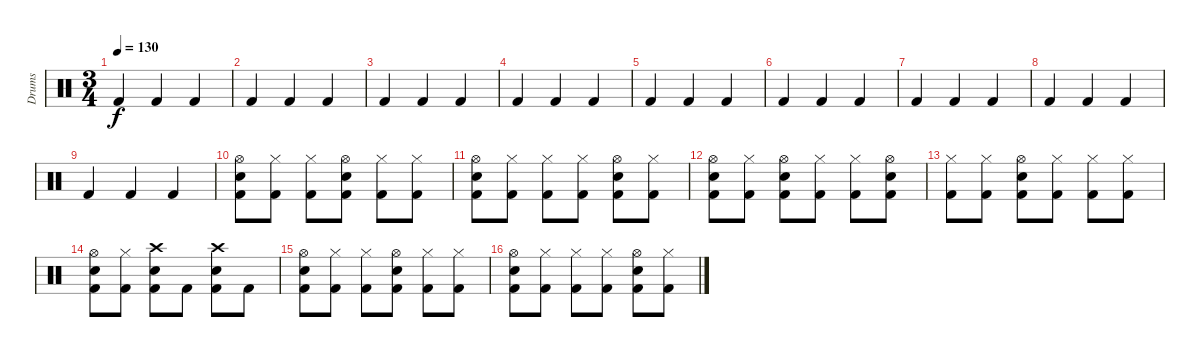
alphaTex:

\track ("Drums" "Drums") {instrument percussion}
\staff {score}
\articulation defaults
\ts (3 4)
\tempo 130
\clef neutral
\ks c "Kick (hit) 2".4{dy f} "Kick (hit) 2".4 "Kick (hit) 2".4
|
"Kick (hit) 2".4 "Kick (hit) 2".4 "Kick (hit) 2".4 |
"Kick (hit) 2".4 "Kick (hit) 2".4 "Kick (hit) 2".4 |
"Kick (hit) 2".4 "Kick (hit) 2".4 "Kick (hit) 2".4 |
"Kick (hit) 2".4 "Kick (hit) 2".4 "Kick (hit) 2".4 |
"Kick (hit) 2".4 "Kick (hit) 2".4 "Kick (hit) 2".4 |
"Kick (hit) 2".4 "Kick (hit) 2".4 "Kick (hit) 2".4 |
"Kick (hit) 2".4 "Kick (hit) 2".4 "Kick (hit) 2".4 |
"Kick (hit) 2".4 "Kick (hit) 2".4 "Kick (hit) 2".4 |
("Hi-Hat (open)" "Snare (hit) 2" "Kick (hit) 2").8 ("Hi-Hat (closed)" "Kick (hit) 2").8 ("Hi-Hat (closed)" "Kick (hit) 2").8 ("Hi-Hat (open)" "Snare (hit) 2" "Kick (hit) 2").8 ("Hi-Hat (closed)" "Kick (hit) 2").8 ("Hi-Hat (closed)" "Kick (hit) 2").8 |
("Hi-Hat (open)" "Snare (hit) 2" "Kick (hit) 2").8 ("Hi-Hat (closed)" "Kick (hit) 2").8 ("Hi-Hat (closed)" "Kick (hit) 2").8 ("Hi-Hat (closed)" "Kick (hit) 2").8 ("Hi-Hat (open)" "Snare (hit) 2" "Kick (hit) 2").8 ("Hi-Hat (closed)" "Kick (hit) 2").8 |
("Hi-Hat (open)" "Snare (hit) 2" "Kick (hit) 2").8 ("Hi-Hat (closed)" "Kick (hit) 2").8 ("Hi-Hat (open)" "Snare (hit) 2" "Kick (hit) 2").8 ("Hi-Hat (closed)" "Kick (hit) 2").8 ("Hi-Hat (closed)" "Kick (hit) 2").8 ("Hi-Hat (open)" "Snare (hit) 2" "Kick (hit) 2").8 |
("Hi-Hat (closed)" "Kick (hit) 2").8 ("Hi-Hat (closed)" "Kick (hit) 2").8 ("Hi-Hat (open)" "Snare (hit) 2" "Kick (hit) 2").8 ("Hi-Hat (closed)" "Kick (hit) 2").8 ("Hi-Hat (closed)" "Kick (hit) 2").8 ("Hi-Hat (closed)" "Kick (hit) 2").8 |
("Hi-Hat (open)" "Snare (hit) 2" "Kick (hit) 2").8 ("Hi-Hat (closed)" "Kick (hit) 2").8 ("Crash high (hit)" "Snare (hit) 2" "Kick (hit) 2").8 "Kick (hit) 2".8 ("Crash high (hit)" "Snare (hit) 2" "Kick (hit) 2").8 "Kick (hit) 2".8 |
("Hi-Hat (open)" "Snare (hit) 2" "Kick (hit) 2").8 ("Hi-Hat (closed)" "Kick (hit) 2").8 ("Hi-Hat (closed)" "Kick (hit) 2").8 ("Hi-Hat (open)" "Snare (hit) 2" "Kick (hit) 2").8 ("Hi-Hat (closed)" "Kick (hit) 2").8 ("Hi-Hat (closed)" "Kick (hit) 2").8 |
("Hi-Hat (open)" "Snare (hit) 2" "Kick (hit) 2").8 ("Hi-Hat (closed)" "Kick (hit) 2").8 ("Hi-Hat (closed)" "Kick (hit) 2").8 ("Hi-Hat (closed)" "Kick (hit) 2").8 ("Hi-Hat (open)" "Snare (hit) 2" "Kick (hit) 2").8 ("Hi-Hat (closed)" "Kick (hit) 2").8
